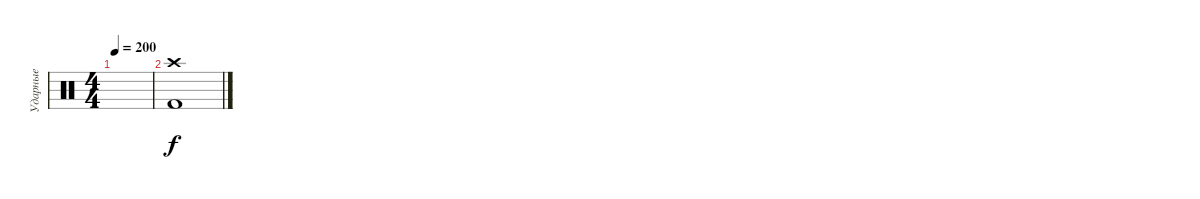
\track ("Ударные" "Ударные") {instrument percussion}
\staff {score}
\articulation defaults
\ts (4 4)
\tempo 200
\clef neutral
\ks c
|
("Crash high (hit)" "Kick (hit) 2").1
